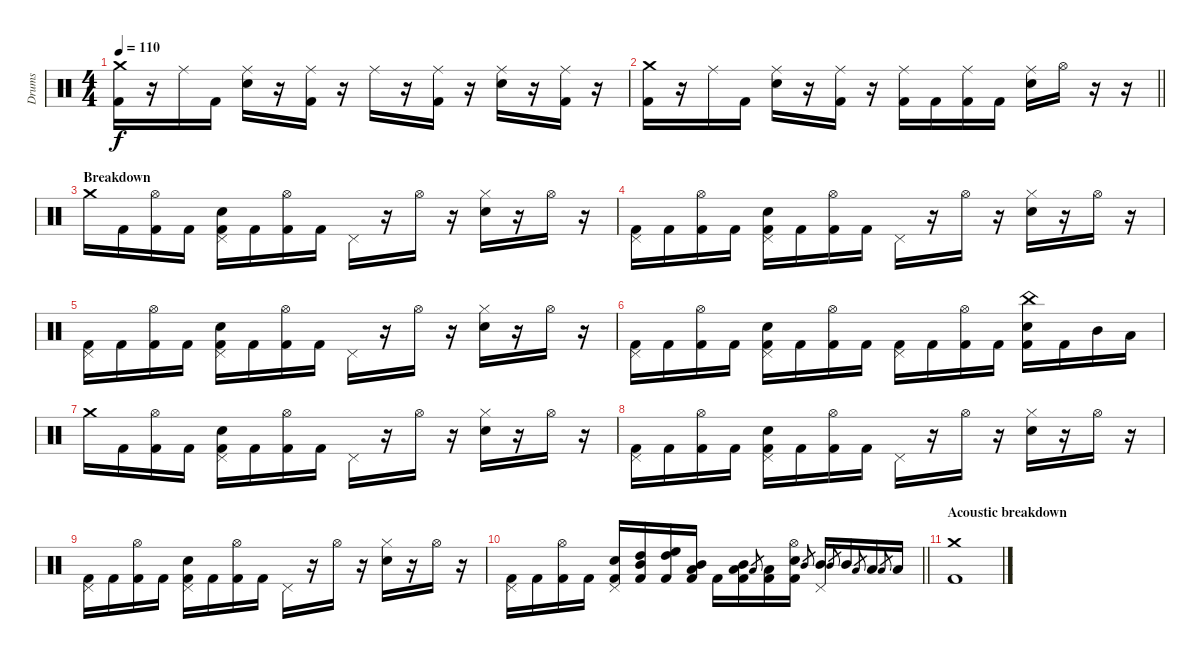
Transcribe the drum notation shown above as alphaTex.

\track ("Drums" "Drums") {instrument percussion}
\staff {score}
\articulation defaults
\ts (4 4)
\tempo 110
\clef neutral
\ks c
("Crash medium (hit)" "Kick (hit) 2").16{dy f} r.16 "Ride (middle)".16 "Kick (hit) 2".16 ("Electric Snare (hit)" "Ride (middle)").16 r.16 ("Ride (middle)" "Kick (hit) 2").16 r.16 "Ride (middle)".16 r.16 ("Ride (middle)" "Kick (hit) 2").16 r.16 ("Electric Snare (hit)" "Ride (middle)").16 r.16 ("Ride (middle)" "Kick (hit) 2").16 r.16 |
\barLineRight lightlight
("Crash medium (hit)" "Kick (hit) 2").16 r.16 "Ride (middle)".16 "Kick (hit) 2".16 ("Electric Snare (hit)" "Ride (middle)").16 r.16 ("Ride (middle)" "Kick (hit) 2").16 r.16 ("Kick (hit) 2" "Ride (middle)").16 "Kick (hit) 2".16 ("Ride (middle)" "Kick (hit) 2").16 "Kick (hit) 2".16 ("Electric Snare (hit)" "Ride (middle)").16 "Hi-Hat (open)".16 r.16 r.16 |
\section ("" "Breakdown")
"Crash medium (hit)".16 "Kick (hit) 2".16 ("Kick (hit) 2" "Hi-Hat (open)").16 "Kick (hit) 2".16 ("Kick (hit) 2" "Electric Snare (hit)" "Pedal Hi-Hat (hit)").16 "Kick (hit) 2".16 ("Kick (hit) 2" "Hi-Hat (open)").16 "Kick (hit) 2".16 "Pedal Hi-Hat (hit)".16 r.16 "Hi-Hat (open)".16 r.16 ("Electric Snare (hit)" "Hi-Hat (closed)").16 r.16 "Hi-Hat (open)".16 r.16 |
("Pedal Hi-Hat (hit)" "Kick (hit) 2").16 "Kick (hit) 2".16 ("Kick (hit) 2" "Hi-Hat (open)").16 "Kick (hit) 2".16 ("Kick (hit) 2" "Electric Snare (hit)" "Pedal Hi-Hat (hit)").16 "Kick (hit) 2".16 ("Kick (hit) 2" "Hi-Hat (open)").16 "Kick (hit) 2".16 "Pedal Hi-Hat (hit)".16 r.16 "Hi-Hat (open)".16 r.16 ("Electric Snare (hit)" "Hi-Hat (closed)").16 r.16 "Hi-Hat (open)".16 r.16 |
("Pedal Hi-Hat (hit)" "Kick (hit) 2").16 "Kick (hit) 2".16 ("Kick (hit) 2" "Hi-Hat (open)").16 "Kick (hit) 2".16 ("Kick (hit) 2" "Electric Snare (hit)" "Pedal Hi-Hat (hit)").16 "Kick (hit) 2".16 ("Kick (hit) 2" "Hi-Hat (open)").16 "Kick (hit) 2".16 "Pedal Hi-Hat (hit)".16 r.16 "Hi-Hat (open)".16 r.16 ("Electric Snare (hit)" "Hi-Hat (closed)").16 r.16 "Hi-Hat (open)".16 r.16 |
("Pedal Hi-Hat (hit)" "Kick (hit) 2").16 "Kick (hit) 2".16 ("Kick (hit) 2" "Hi-Hat (open)").16 "Kick (hit) 2".16 ("Kick (hit) 2" "Electric Snare (hit)" "Pedal Hi-Hat (hit)").16 "Kick (hit) 2".16 ("Kick (hit) 2" "Hi-Hat (open)").16 "Kick (hit) 2".16 ("Pedal Hi-Hat (hit)" "Kick (hit) 2").16 "Kick (hit) 2".16 ("Hi-Hat (open)" "Kick (hit) 2").16 "Kick (hit) 2".16 ("Electric Snare (hit)" "Kick (hit) 2" "China (hit)").16 "Kick (hit) 2".16 "Mid Tom (hit)".16 "Low Tom (hit)".16 |
"Crash medium (hit)".16 "Kick (hit) 2".16 ("Kick (hit) 2" "Hi-Hat (open)").16 "Kick (hit) 2".16 ("Kick (hit) 2" "Electric Snare (hit)" "Pedal Hi-Hat (hit)").16 "Kick (hit) 2".16 ("Kick (hit) 2" "Hi-Hat (open)").16 "Kick (hit) 2".16 "Pedal Hi-Hat (hit)".16 r.16 "Hi-Hat (open)".16 r.16 ("Electric Snare (hit)" "Hi-Hat (closed)").16 r.16 "Hi-Hat (open)".16 r.16 |
("Pedal Hi-Hat (hit)" "Kick (hit) 2").16 "Kick (hit) 2".16 ("Kick (hit) 2" "Hi-Hat (open)").16 "Kick (hit) 2".16 ("Kick (hit) 2" "Electric Snare (hit)" "Pedal Hi-Hat (hit)").16 "Kick (hit) 2".16 ("Kick (hit) 2" "Hi-Hat (open)").16 "Kick (hit) 2".16 "Pedal Hi-Hat (hit)".16 r.16 "Hi-Hat (open)".16 r.16 ("Electric Snare (hit)" "Hi-Hat (closed)").16 r.16 "Hi-Hat (open)".16 r.16 |
("Pedal Hi-Hat (hit)" "Kick (hit) 2").16 "Kick (hit) 2".16 ("Kick (hit) 2" "Hi-Hat (open)").16 "Kick (hit) 2".16 ("Kick (hit) 2" "Electric Snare (hit)" "Pedal Hi-Hat (hit)").16 "Kick (hit) 2".16 ("Kick (hit) 2" "Hi-Hat (open)").16 "Kick (hit) 2".16 "Pedal Hi-Hat (hit)".16 r.16 "Hi-Hat (open)".16 r.16 ("Electric Snare (hit)" "Hi-Hat (closed)").16 r.16 "Hi-Hat (open)".16 r.16 |
\barLineRight lightlight
("Pedal Hi-Hat (hit)" "Kick (hit) 2").16 "Kick (hit) 2".16 ("Kick (hit) 2" "Hi-Hat (open)").16 "Kick (hit) 2".16 ("Kick (hit) 2" "Electric Snare (hit)" "Pedal Hi-Hat (hit)").16 ("Kick (hit) 2" "Mid Tom (hit)" "High Tom (hit)").16 ("Kick (hit) 2" "High Floor Tom (hit)" "High Tom (hit)").16 ("Kick (hit) 2" "Mid Tom (hit)" "Low Tom (hit)").16 "Kick (hit) 2".16 ("Mid Tom (hit)" "Kick (hit) 2" "Low Tom (hit)").16 "Low Tom (hit)".8{gr} ("Kick (hit) 2" "Low Tom (hit)").16 ("Electric Snare (hit)" "Kick (hit) 2" "Hi-Hat (open)").16 "Mid Tom (hit)".8{gr} ("Pedal Hi-Hat (hit)" "Mid Tom (hit)").16 "Mid Tom (hit)".8{gr} "Mid Tom (hit)".16 "Low Tom (hit)".8{gr} "Low Tom (hit)".16 "Low Tom (hit)".8{gr} "Low Tom (hit)".16 |
\section ("" "Acoustic breakdown")
("Kick (hit) 2" "Crash medium (hit)").1
